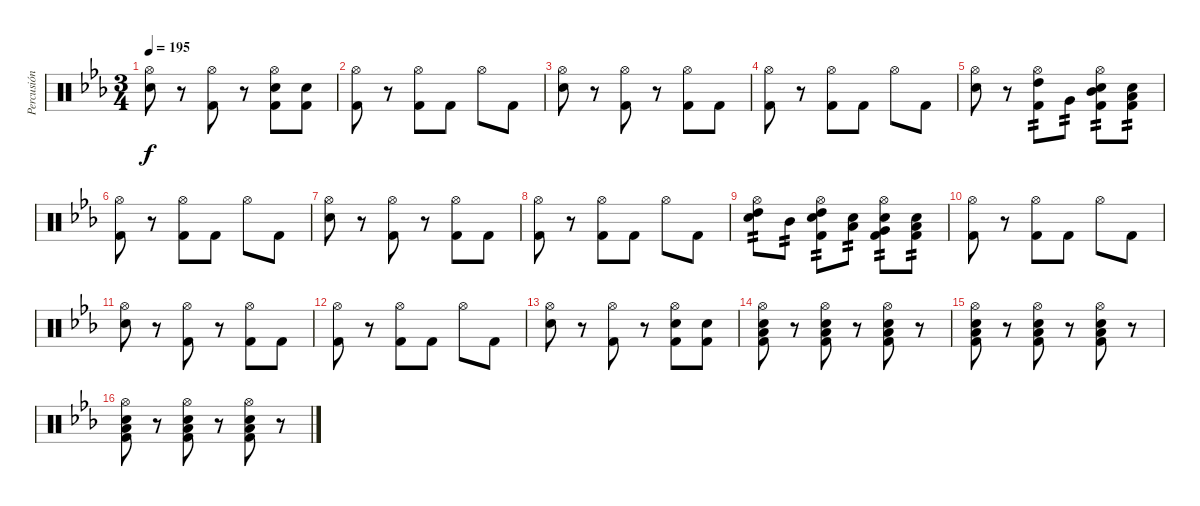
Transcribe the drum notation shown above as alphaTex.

\track ("Percusión" "Percusión") {instrument percussion}
\staff {score}
\articulation defaults
\ts (3 4)
\tempo 195
\clef neutral
\ks eb
("Hi-Hat (open)" "Snare (hit) 2").8{dy f} r.8 ("Hi-Hat (open)" "Kick (hit) 2").8 r.8 ("Hi-Hat (open)" "Snare (hit) 2" "Kick (hit) 2").8 ("Snare (hit) 2" "Kick (hit) 2").8 |
("Hi-Hat (open)" "Kick (hit) 2").8 r.8 ("Hi-Hat (open)" "Kick (hit) 2").8 "Kick (hit) 2".8 "Hi-Hat (open)".8 "Kick (hit) 2".8 |
("Hi-Hat (open)" "Snare (hit) 2").8 r.8 ("Hi-Hat (open)" "Kick (hit) 2").8 r.8 ("Hi-Hat (open)" "Kick (hit) 2").8 "Kick (hit) 2".8 |
("Hi-Hat (open)" "Kick (hit) 2").8 r.8 ("Hi-Hat (open)" "Kick (hit) 2").8 "Kick (hit) 2".8 "Hi-Hat (open)".8 "Kick (hit) 2".8 |
("Hi-Hat (open)" "Snare (hit) 2").8 r.8 ("Hi-Hat (open)" "High Tom (hit)" "Kick (hit) 2").8{tp 2} "Very Low Tom (hit)".8{tp 2} ("Hi-Hat (open)" "Mid Tom (hit)" "Snare (hit) 2" "Kick (hit) 2").8{tp 2} ("Low Tom (hit)" "Snare (hit) 2" "Kick (hit) 2").8{tp 2} |
("Hi-Hat (open)" "Kick (hit) 2").8 r.8 ("Hi-Hat (open)" "Kick (hit) 2").8 "Kick (hit) 2".8 "Hi-Hat (open)".8 "Kick (hit) 2".8 |
("Hi-Hat (open)" "Snare (hit) 2").8 r.8 ("Hi-Hat (open)" "Kick (hit) 2").8 r.8 ("Hi-Hat (open)" "Kick (hit) 2").8 "Kick (hit) 2".8 |
("Hi-Hat (open)" "Kick (hit) 2").8 r.8 ("Hi-Hat (open)" "Kick (hit) 2").8 "Kick (hit) 2".8 "Hi-Hat (open)".8 "Kick (hit) 2".8 |
("Hi-Hat (open)" "High Tom (hit)" "Snare (hit) 2").8{tp 2} "Mid Tom (hit)".8{tp 2} ("Hi-Hat (open)" "High Tom (hit)" "Snare (hit) 2" "Kick (hit) 2").8{tp 2} ("Low Tom (hit)" "Snare (hit) 2").8{tp 2} ("Hi-Hat (open)" "Very Low Tom (hit)" "Snare (hit) 2" "Kick (hit) 2").8{tp 2} ("Low Floor Tom (hit)" "Snare (hit) 2" "Kick (hit) 2").8{tp 2} |
("Hi-Hat (open)" "Kick (hit) 2").8 r.8 ("Hi-Hat (open)" "Kick (hit) 2").8 "Kick (hit) 2".8 "Hi-Hat (open)".8 "Kick (hit) 2".8 |
("Hi-Hat (open)" "Snare (hit) 2").8 r.8 ("Hi-Hat (open)" "Kick (hit) 2").8 r.8 ("Hi-Hat (open)" "Kick (hit) 2").8 "Kick (hit) 2".8 |
("Hi-Hat (open)" "Kick (hit) 2").8 r.8 ("Hi-Hat (open)" "Kick (hit) 2").8 "Kick (hit) 2".8 "Hi-Hat (open)".8 "Kick (hit) 2".8 |
("Hi-Hat (open)" "Snare (hit) 2").8 r.8 ("Hi-Hat (open)" "Kick (hit) 2").8 r.8 ("Hi-Hat (open)" "Snare (hit) 2" "Kick (hit) 2").8 ("Snare (hit) 2" "Kick (hit) 2").8 |
("Hi-Hat (open)" "Low Floor Tom (hit)" "Snare (hit) 2" "Kick (hit) 2").8 r.8 ("Hi-Hat (open)" "Low Floor Tom (hit)" "Snare (hit) 2" "Kick (hit) 2").8 r.8 ("Hi-Hat (open)" "Low Floor Tom (hit)" "Snare (hit) 2" "Kick (hit) 2").8 r.8 |
("Hi-Hat (open)" "Low Floor Tom (hit)" "Snare (hit) 2" "Kick (hit) 2").8 r.8 ("Hi-Hat (open)" "Low Floor Tom (hit)" "Snare (hit) 2" "Kick (hit) 2").8 r.8 ("Hi-Hat (open)" "Low Floor Tom (hit)" "Snare (hit) 2" "Kick (hit) 2").8 r.8 |
("Hi-Hat (open)" "Low Floor Tom (hit)" "Snare (hit) 2" "Kick (hit) 2").8 r.8 ("Hi-Hat (open)" "Low Floor Tom (hit)" "Snare (hit) 2" "Kick (hit) 2").8 r.8 ("Hi-Hat (open)" "Low Floor Tom (hit)" "Snare (hit) 2" "Kick (hit) 2").8 r.8
